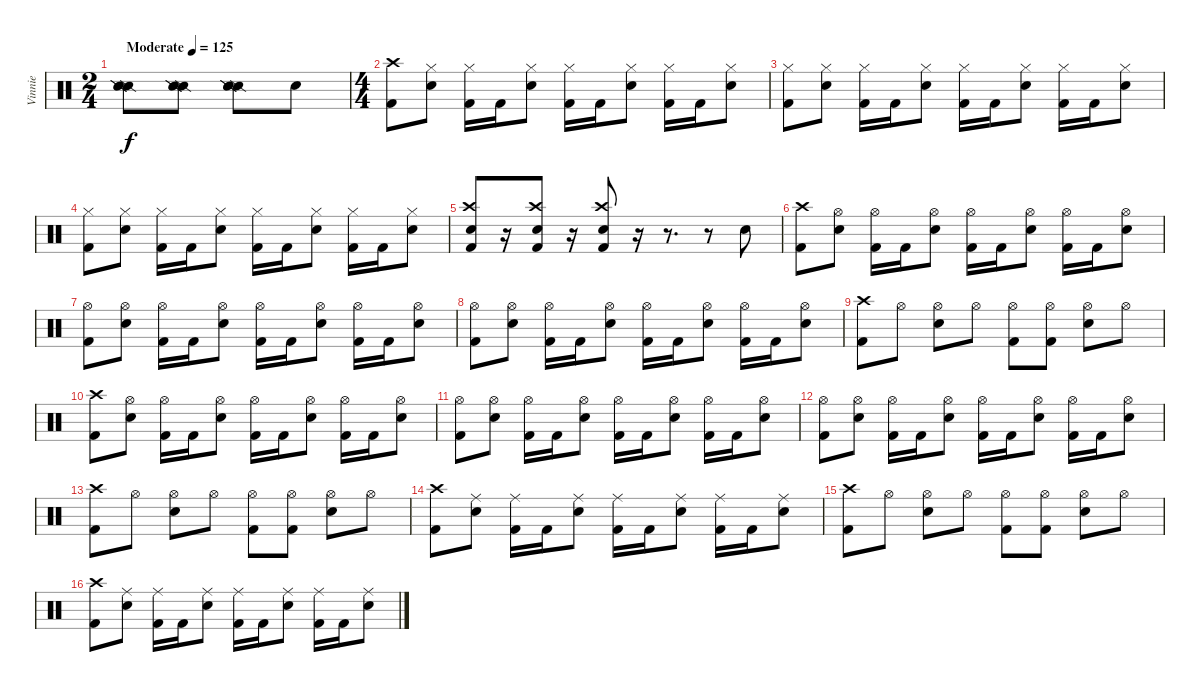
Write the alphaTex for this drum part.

\track ("Vinnie" "Vinnie") {instrument percussion}
\staff {score}
\articulation defaults
\ts (2 4)
\tempo (125 "Moderate")
\clef neutral
\ks c
("Snare (side stick) 2" "Snare (side stick) 2" "Snare (side stick) 2").8{dy f} ("Snare (side stick) 2" "Snare (side stick) 2" "Snare (side stick) 2").8 ("Snare (side stick) 2" "Snare (side stick) 2" "Snare (side stick) 2").8 "Electric Snare (hit)".8 |
\ts (4 4)
("Crash high (hit)" "Kick (hit) 2").8 ("Hi-Hat (closed)" "Electric Snare (hit)").8 ("Hi-Hat (closed)" "Kick (hit) 2").16 "Kick (hit) 2".16 ("Hi-Hat (closed)" "Electric Snare (hit)").8 ("Hi-Hat (closed)" "Kick (hit) 2").16 "Kick (hit) 2".16 ("Hi-Hat (closed)" "Electric Snare (hit)").8 ("Hi-Hat (closed)" "Kick (hit) 2").16 "Kick (hit) 2".16 ("Hi-Hat (closed)" "Electric Snare (hit)").8 |
("Hi-Hat (closed)" "Kick (hit) 2").8 ("Hi-Hat (closed)" "Electric Snare (hit)").8 ("Hi-Hat (closed)" "Kick (hit) 2").16 "Kick (hit) 2".16 ("Hi-Hat (closed)" "Electric Snare (hit)").8 ("Hi-Hat (closed)" "Kick (hit) 2").16 "Kick (hit) 2".16 ("Hi-Hat (closed)" "Electric Snare (hit)").8 ("Hi-Hat (closed)" "Kick (hit) 2").16 "Kick (hit) 2".16 ("Hi-Hat (closed)" "Electric Snare (hit)").8 |
("Hi-Hat (closed)" "Kick (hit) 2").8 ("Hi-Hat (closed)" "Electric Snare (hit)").8 ("Hi-Hat (closed)" "Kick (hit) 2").16 "Kick (hit) 2".16 ("Hi-Hat (closed)" "Electric Snare (hit)").8 ("Hi-Hat (closed)" "Kick (hit) 2").16 "Kick (hit) 2".16 ("Hi-Hat (closed)" "Electric Snare (hit)").8 ("Hi-Hat (closed)" "Kick (hit) 2").16 "Kick (hit) 2".16 ("Hi-Hat (closed)" "Electric Snare (hit)").8 |
("Crash high (hit)" "Electric Snare (hit)" "Kick (hit) 2").8 r.16 ("Crash high (hit)" "Electric Snare (hit)" "Kick (hit) 2").8 r.16 ("Crash high (hit)" "Electric Snare (hit)" "Kick (hit) 2").8 r.16 r.8{d} r.8 "Electric Snare (hit)".8 |
("Crash high (hit)" "Kick (hit) 2").8 ("Hi-Hat (open)" "Electric Snare (hit)").8 ("Hi-Hat (open)" "Kick (hit) 2").16 "Kick (hit) 2".16 ("Hi-Hat (open)" "Electric Snare (hit)").8 ("Hi-Hat (open)" "Kick (hit) 2").16 "Kick (hit) 2".16 ("Hi-Hat (open)" "Electric Snare (hit)").8 ("Hi-Hat (open)" "Kick (hit) 2").16 "Kick (hit) 2".16 ("Hi-Hat (open)" "Electric Snare (hit)").8 |
("Hi-Hat (open)" "Kick (hit) 2").8 ("Hi-Hat (open)" "Electric Snare (hit)").8 ("Hi-Hat (open)" "Kick (hit) 2").16 "Kick (hit) 2".16 ("Hi-Hat (open)" "Electric Snare (hit)").8 ("Hi-Hat (open)" "Kick (hit) 2").16 "Kick (hit) 2".16 ("Hi-Hat (open)" "Electric Snare (hit)").8 ("Hi-Hat (open)" "Kick (hit) 2").16 "Kick (hit) 2".16 ("Hi-Hat (open)" "Electric Snare (hit)").8 |
("Hi-Hat (open)" "Kick (hit) 2").8 ("Hi-Hat (open)" "Electric Snare (hit)").8 ("Hi-Hat (open)" "Kick (hit) 2").16 "Kick (hit) 2".16 ("Hi-Hat (open)" "Electric Snare (hit)").8 ("Hi-Hat (open)" "Kick (hit) 2").16 "Kick (hit) 2".16 ("Hi-Hat (open)" "Electric Snare (hit)").8 ("Hi-Hat (open)" "Kick (hit) 2").16 "Kick (hit) 2".16 ("Hi-Hat (open)" "Electric Snare (hit)").8 |
("Crash high (hit)" "Kick (hit) 2").8 "Hi-Hat (open)".8 ("Hi-Hat (open)" "Electric Snare (hit)").8 "Hi-Hat (open)".8 ("Hi-Hat (open)" "Kick (hit) 2").8 ("Hi-Hat (open)" "Kick (hit) 2").8 ("Hi-Hat (open)" "Electric Snare (hit)").8 "Hi-Hat (open)".8 |
("Crash high (hit)" "Kick (hit) 2").8 ("Hi-Hat (open)" "Electric Snare (hit)").8 ("Hi-Hat (open)" "Kick (hit) 2").16 "Kick (hit) 2".16 ("Hi-Hat (open)" "Electric Snare (hit)").8 ("Hi-Hat (open)" "Kick (hit) 2").16 "Kick (hit) 2".16 ("Hi-Hat (open)" "Electric Snare (hit)").8 ("Hi-Hat (open)" "Kick (hit) 2").16 "Kick (hit) 2".16 ("Hi-Hat (open)" "Electric Snare (hit)").8 |
("Hi-Hat (open)" "Kick (hit) 2").8 ("Hi-Hat (open)" "Electric Snare (hit)").8 ("Hi-Hat (open)" "Kick (hit) 2").16 "Kick (hit) 2".16 ("Hi-Hat (open)" "Electric Snare (hit)").8 ("Hi-Hat (open)" "Kick (hit) 2").16 "Kick (hit) 2".16 ("Hi-Hat (open)" "Electric Snare (hit)").8 ("Hi-Hat (open)" "Kick (hit) 2").16 "Kick (hit) 2".16 ("Hi-Hat (open)" "Electric Snare (hit)").8 |
("Hi-Hat (open)" "Kick (hit) 2").8 ("Hi-Hat (open)" "Electric Snare (hit)").8 ("Hi-Hat (open)" "Kick (hit) 2").16 "Kick (hit) 2".16 ("Hi-Hat (open)" "Electric Snare (hit)").8 ("Hi-Hat (open)" "Kick (hit) 2").16 "Kick (hit) 2".16 ("Hi-Hat (open)" "Electric Snare (hit)").8 ("Hi-Hat (open)" "Kick (hit) 2").16 "Kick (hit) 2".16 ("Hi-Hat (open)" "Electric Snare (hit)").8 |
("Crash high (hit)" "Kick (hit) 2").8 "Hi-Hat (open)".8 ("Hi-Hat (open)" "Electric Snare (hit)").8 "Hi-Hat (open)".8 ("Hi-Hat (open)" "Kick (hit) 2").8 ("Hi-Hat (open)" "Kick (hit) 2").8 ("Hi-Hat (open)" "Electric Snare (hit)").8 "Hi-Hat (open)".8 |
("Crash high (hit)" "Kick (hit) 2").8 ("Ride (middle)" "Electric Snare (hit)").8 ("Ride (middle)" "Kick (hit) 2").16 "Kick (hit) 2".16 ("Ride (middle)" "Electric Snare (hit)").8 ("Ride (middle)" "Kick (hit) 2").16 "Kick (hit) 2".16 ("Ride (middle)" "Electric Snare (hit)").8 ("Ride (middle)" "Kick (hit) 2").16 "Kick (hit) 2".16 ("Ride (middle)" "Electric Snare (hit)").8 |
("Crash high (hit)" "Kick (hit) 2").8 "Hi-Hat (open)".8 ("Hi-Hat (open)" "Electric Snare (hit)").8 "Hi-Hat (open)".8 ("Hi-Hat (open)" "Kick (hit) 2").8 ("Hi-Hat (open)" "Kick (hit) 2").8 ("Hi-Hat (open)" "Electric Snare (hit)").8 "Hi-Hat (open)".8 |
("Crash high (hit)" "Kick (hit) 2").8 ("Ride (middle)" "Electric Snare (hit)").8 ("Ride (middle)" "Kick (hit) 2").16 "Kick (hit) 2".16 ("Ride (middle)" "Electric Snare (hit)").8 ("Ride (middle)" "Kick (hit) 2").16 "Kick (hit) 2".16 ("Ride (middle)" "Electric Snare (hit)").8 ("Ride (middle)" "Kick (hit) 2").16 "Kick (hit) 2".16 ("Ride (middle)" "Electric Snare (hit)").8
